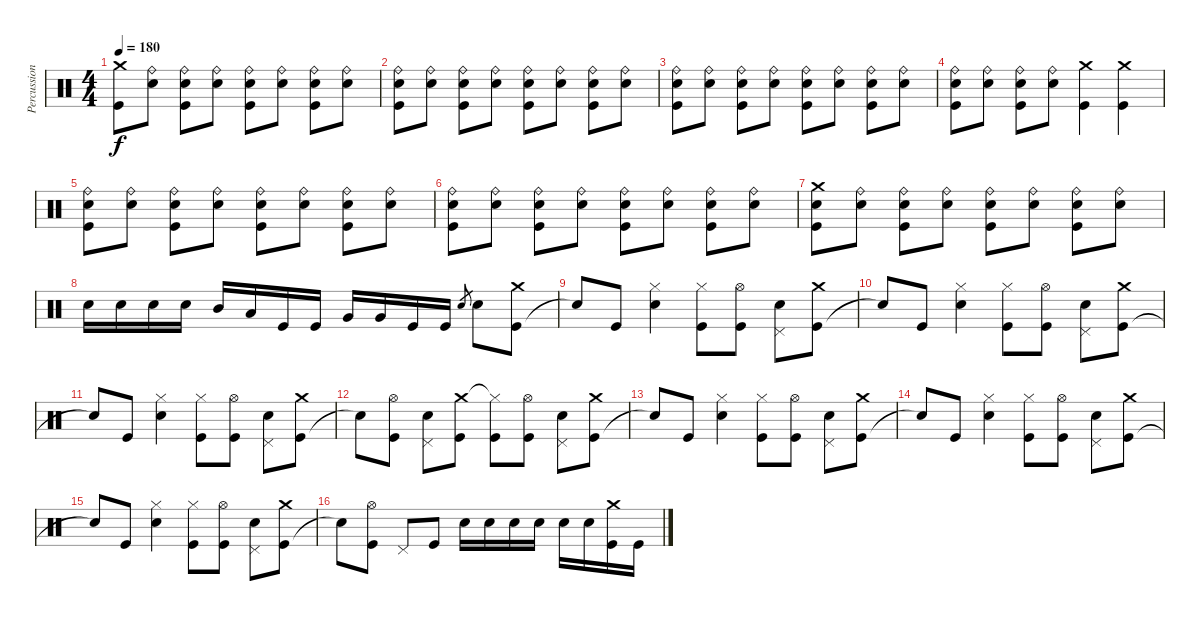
\track ("Percussions" "Percussion") {instrument percussion}
\staff {score}
\articulation defaults
\ts (4 4)
\tempo 180
\clef neutral
\ks c
("Kick (hit)" "Crash medium (hit)").8{dy f} ("Electric Snare (hit)" "Ride (bell)").8 ("Kick (hit)" "Electric Snare (hit)" "Ride (bell)").8 ("Electric Snare (hit)" "Ride (bell)").8 ("Kick (hit)" "Electric Snare (hit)" "Ride (bell)").8 ("Electric Snare (hit)" "Ride (bell)").8 ("Kick (hit)" "Electric Snare (hit)" "Ride (bell)").8 ("Electric Snare (hit)" "Ride (bell)").8 |
("Kick (hit)" "Electric Snare (hit)" "Ride (bell)").8 ("Electric Snare (hit)" "Ride (bell)").8 ("Kick (hit)" "Electric Snare (hit)" "Ride (bell)").8 ("Electric Snare (hit)" "Ride (bell)").8 ("Kick (hit)" "Electric Snare (hit)" "Ride (bell)").8 ("Electric Snare (hit)" "Ride (bell)").8 ("Kick (hit)" "Electric Snare (hit)" "Ride (bell)").8 ("Electric Snare (hit)" "Ride (bell)").8 |
("Kick (hit)" "Electric Snare (hit)" "Ride (bell)").8 ("Electric Snare (hit)" "Ride (bell)").8 ("Kick (hit)" "Electric Snare (hit)" "Ride (bell)").8 ("Electric Snare (hit)" "Ride (bell)").8 ("Kick (hit)" "Electric Snare (hit)" "Ride (bell)").8 ("Electric Snare (hit)" "Ride (bell)").8 ("Kick (hit)" "Electric Snare (hit)" "Ride (bell)").8 ("Electric Snare (hit)" "Ride (bell)").8 |
("Kick (hit)" "Electric Snare (hit)" "Ride (bell)").8 ("Electric Snare (hit)" "Ride (bell)").8 ("Kick (hit)" "Electric Snare (hit)" "Ride (bell)").8 ("Electric Snare (hit)" "Ride (bell)").8 ("Kick (hit)" "Crash medium (hit)").4 ("Kick (hit)" "Crash medium (hit)").4 |
("Kick (hit)" "Electric Snare (hit)" "Ride (bell)").8 ("Electric Snare (hit)" "Ride (bell)").8 ("Kick (hit)" "Electric Snare (hit)" "Ride (bell)").8 ("Electric Snare (hit)" "Ride (bell)").8 ("Kick (hit)" "Electric Snare (hit)" "Ride (bell)").8 ("Electric Snare (hit)" "Ride (bell)").8 ("Kick (hit)" "Electric Snare (hit)" "Ride (bell)").8 ("Electric Snare (hit)" "Ride (bell)").8 |
("Kick (hit)" "Electric Snare (hit)" "Ride (bell)").8 ("Electric Snare (hit)" "Ride (bell)").8 ("Kick (hit)" "Electric Snare (hit)" "Ride (bell)").8 ("Electric Snare (hit)" "Ride (bell)").8 ("Kick (hit)" "Electric Snare (hit)" "Ride (bell)").8 ("Electric Snare (hit)" "Ride (bell)").8 ("Kick (hit)" "Electric Snare (hit)" "Ride (bell)").8 ("Electric Snare (hit)" "Ride (bell)").8 |
("Kick (hit)" "Electric Snare (hit)" "Crash medium (hit)").8 ("Electric Snare (hit)" "Ride (bell)").8 ("Kick (hit)" "Electric Snare (hit)" "Ride (bell)").8 ("Electric Snare (hit)" "Ride (bell)").8 ("Kick (hit)" "Electric Snare (hit)" "Ride (bell)").8 ("Electric Snare (hit)" "Ride (bell)").8 ("Kick (hit)" "Electric Snare (hit)" "Ride (bell)").8 ("Electric Snare (hit)" "Ride (bell)").8 |
"Electric Snare (hit)".16 "Electric Snare (hit)".16 "Electric Snare (hit)".16 "Electric Snare (hit)".16 "Mid Tom (hit)".16 "Low Tom (hit)".16 "Kick (hit)".16 "Kick (hit)".16 "Very Low Tom (hit)".16 "Very Low Tom (hit)".16 "Kick (hit)".16 "Kick (hit)".16 "Electric Snare (hit)".8{gr} "Electric Snare (hit)".8 ("Kick (hit)" "Crash medium (hit)").8 |
"Snare (hit)"{t}.8 "Kick (hit)".8 ("Electric Snare (hit)" "Hi-Hat (closed)").4 ("Kick (hit)" "Hi-Hat (closed)").8 ("Kick (hit)" "Hi-Hat (open)").8 ("Electric Snare (hit)" "Pedal Hi-Hat (hit)").8 ("Kick (hit)" "Crash medium (hit)").8 |
"Snare (hit)"{t}.8 "Kick (hit)".8 ("Electric Snare (hit)" "Hi-Hat (closed)").4 ("Kick (hit)" "Hi-Hat (closed)").8 ("Kick (hit)" "Hi-Hat (open)").8 ("Electric Snare (hit)" "Pedal Hi-Hat (hit)").8 ("Kick (hit)" "Crash medium (hit)").8 |
"Snare (hit)"{t}.8 "Kick (hit)".8 ("Electric Snare (hit)" "Hi-Hat (closed)").4 ("Kick (hit)" "Hi-Hat (closed)").8 ("Kick (hit)" "Hi-Hat (open)").8 ("Electric Snare (hit)" "Pedal Hi-Hat (hit)").8 ("Kick (hit)" "Crash medium (hit)").8 |
"Snare (hit)"{t}.8 ("Kick (hit)" "Hi-Hat (open)").8 ("Electric Snare (hit)" "Pedal Hi-Hat (hit)").8 ("Kick (hit)" "Crash medium (hit)").8 ("Kick (hit)" "Hi-Hat (closed)"{t}).8 ("Kick (hit)" "Hi-Hat (open)").8 ("Electric Snare (hit)" "Pedal Hi-Hat (hit)").8 ("Kick (hit)" "Crash medium (hit)").8 |
"Snare (hit)"{t}.8 "Kick (hit)".8 ("Electric Snare (hit)" "Hi-Hat (closed)").4 ("Kick (hit)" "Hi-Hat (closed)").8 ("Kick (hit)" "Hi-Hat (open)").8 ("Electric Snare (hit)" "Pedal Hi-Hat (hit)").8 ("Kick (hit)" "Crash medium (hit)").8 |
"Snare (hit)"{t}.8 "Kick (hit)".8 ("Electric Snare (hit)" "Hi-Hat (closed)").4 ("Kick (hit)" "Hi-Hat (closed)").8 ("Kick (hit)" "Hi-Hat (open)").8 ("Electric Snare (hit)" "Pedal Hi-Hat (hit)").8 ("Kick (hit)" "Crash medium (hit)").8 |
"Snare (hit)"{t}.8 "Kick (hit)".8 ("Electric Snare (hit)" "Hi-Hat (closed)").4 ("Kick (hit)" "Hi-Hat (closed)").8 ("Kick (hit)" "Hi-Hat (open)").8 ("Electric Snare (hit)" "Pedal Hi-Hat (hit)").8 ("Kick (hit)" "Crash medium (hit)").8 |
"Snare (hit)"{t}.8 ("Kick (hit)" "Hi-Hat (open)").8 "Pedal Hi-Hat (hit)".8 "Kick (hit)".8 "Electric Snare (hit)".16 "Electric Snare (hit)".16 "Electric Snare (hit)".16 "Electric Snare (hit)".16 "Electric Snare (hit)".16 "Electric Snare (hit)".16 ("Kick (hit)" "Crash medium (hit)").16 "Kick (hit)".16
